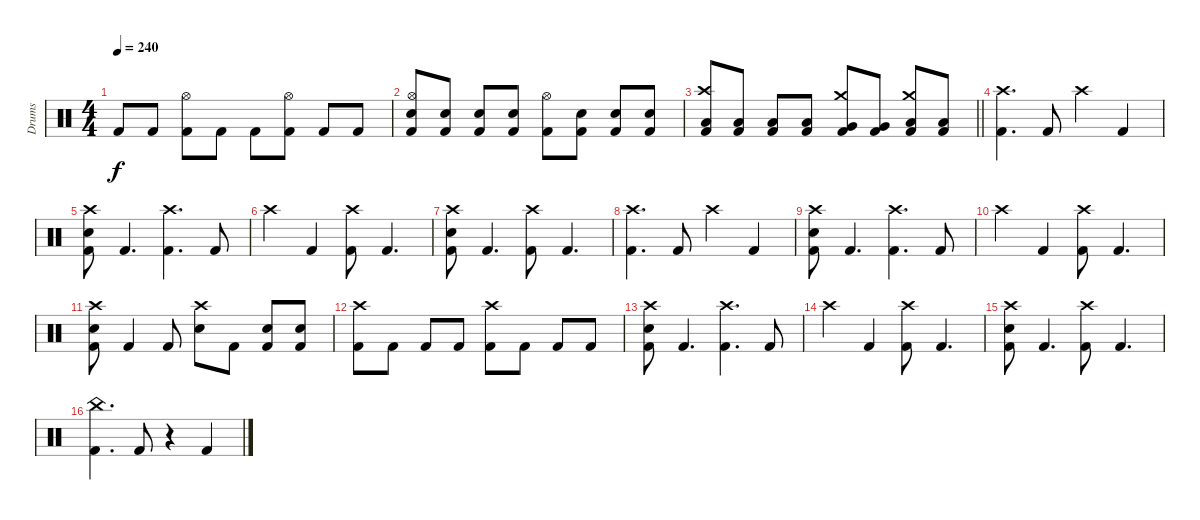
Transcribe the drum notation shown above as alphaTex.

\track ("Drums" "Drums") {instrument percussion}
\staff {score}
\articulation defaults
\ts (4 4)
\tempo 240
\clef neutral
\ks c "Kick (hit) 2".8{dy f} "Kick (hit) 2".8
("Hi-Hat (open)" "Kick (hit) 2").8 "Kick (hit) 2".8 "Kick (hit) 2".8 ("Hi-Hat (open)" "Kick (hit) 2").8 "Kick (hit) 2".8 "Kick (hit) 2".8 |
("Hi-Hat (open)" "Snare (hit) 2" "Kick (hit) 2").8 ("Snare (hit) 2" "Kick (hit) 2").8 ("Snare (hit) 2" "Kick (hit) 2").8 ("Snare (hit) 2" "Kick (hit) 2").8 ("Hi-Hat (open)" "Kick (hit) 2").8 ("Snare (hit) 2" "Kick (hit) 2").8 ("Snare (hit) 2" "Kick (hit) 2").8 ("Snare (hit) 2" "Kick (hit) 2").8 |
\barLineRight lightlight
("Crash high (hit)" "Low Floor Tom (hit)" "Kick (hit) 2").8 ("Low Floor Tom (hit)" "Kick (hit) 2").8 ("Low Floor Tom (hit)" "Kick (hit) 2").8 ("Low Floor Tom (hit)" "Kick (hit) 2").8 ("Crash medium (hit)" "Very Low Tom (hit)" "Kick (hit) 2").8 ("Very Low Tom (hit)" "Kick (hit) 2").8 ("Crash medium (hit)" "Low Tom (hit)" "Kick (hit) 2").8 ("Low Tom (hit)" "Kick (hit) 2").8 |
\section ("" "")
("Crash high (hit)" "Kick (hit) 2").4{d} "Kick (hit) 2".8 "Crash high (hit)".4 "Kick (hit) 2".4 |
("Snare (hit) 2" "Crash high (hit)" "Kick (hit) 2").8 "Kick (hit) 2".4{d} ("Crash high (hit)" "Kick (hit) 2").4{d} "Kick (hit) 2".8 |
"Crash high (hit)".4 "Kick (hit) 2".4 ("Crash high (hit)" "Kick (hit) 2").8 "Kick (hit) 2".4{d} |
("Snare (hit) 2" "Crash high (hit)" "Kick (hit) 2").8 "Kick (hit) 2".4{d} ("Crash high (hit)" "Kick (hit) 2").8 "Kick (hit) 2".4{d} |
("Crash high (hit)" "Kick (hit) 2").4{d} "Kick (hit) 2".8 "Crash high (hit)".4 "Kick (hit) 2".4 |
("Snare (hit) 2" "Crash high (hit)" "Kick (hit) 2").8 "Kick (hit) 2".4{d} ("Crash high (hit)" "Kick (hit) 2").4{d} "Kick (hit) 2".8 |
"Crash high (hit)".4 "Kick (hit) 2".4 ("Crash high (hit)" "Kick (hit) 2").8 "Kick (hit) 2".4{d} |
("Snare (hit) 2" "Crash high (hit)" "Kick (hit) 2").8 "Kick (hit) 2".4 "Kick (hit) 2".8 ("Snare (hit) 2" "Crash high (hit)").8 "Kick (hit) 2".8 ("Snare (hit) 2" "Kick (hit) 2").8 ("Snare (hit) 2" "Kick (hit) 2").8 |
("Crash high (hit)" "Kick (hit) 2").8 "Kick (hit) 2".8 "Kick (hit) 2".8 "Kick (hit) 2".8 ("Crash high (hit)" "Kick (hit) 2").8 "Kick (hit) 2".8 "Kick (hit) 2".8 "Kick (hit) 2".8 |
("Snare (hit) 2" "Crash high (hit)" "Kick (hit) 2").8 "Kick (hit) 2".4{d} ("Crash high (hit)" "Kick (hit) 2").4{d} "Kick (hit) 2".8 |
"Crash high (hit)".4 "Kick (hit) 2".4 ("Crash high (hit)" "Kick (hit) 2").8 "Kick (hit) 2".4{d} |
("Snare (hit) 2" "Crash high (hit)" "Kick (hit) 2").8 "Kick (hit) 2".4{d} ("Crash high (hit)" "Kick (hit) 2").8 "Kick (hit) 2".4{d} |
("China (hit)" "Kick (hit) 2").4{d} "Kick (hit) 2".8 r.4 "Kick (hit) 2".4
